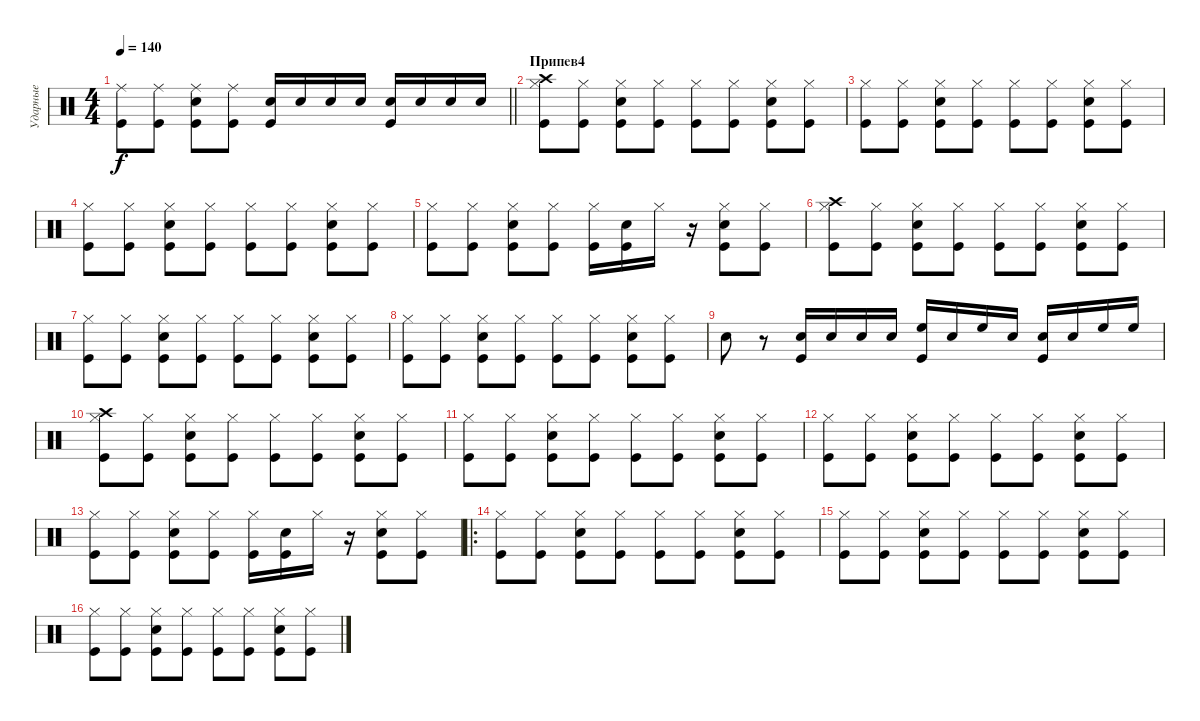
\track ("Ударные" "Ударные") {instrument percussion}
\staff {score}
\articulation defaults
\ts (4 4)
\tempo 140
\clef neutral
\barLineRight lightlight
\ks c
("Ride (middle)" "Kick (hit)").8{dy f} ("Ride (middle)" "Kick (hit)").8 ("Ride (middle)" "Kick (hit)" "Snare (hit) 2").8 ("Ride (middle)" "Kick (hit)").8 ("Snare (hit) 2" "Kick (hit)").16 "Snare (hit) 2".16 "Snare (hit) 2".16 "Snare (hit) 2".16 ("Snare (hit) 2" "Kick (hit)").16 "Snare (hit) 2".16 "Snare (hit) 2".16 "Snare (hit) 2".16 |
\section ("" "Припев4")
("Hi-Hat (closed)" "Kick (hit)" "Crash high (hit)").8 ("Hi-Hat (closed)" "Kick (hit)").8 ("Hi-Hat (closed)" "Kick (hit)" "Snare (hit) 2").8 ("Hi-Hat (closed)" "Kick (hit)").8 ("Hi-Hat (closed)" "Kick (hit)").8 ("Hi-Hat (closed)" "Kick (hit)").8 ("Hi-Hat (closed)" "Kick (hit)" "Snare (hit) 2").8 ("Hi-Hat (closed)" "Kick (hit)").8 |
("Hi-Hat (closed)" "Kick (hit)").8 ("Hi-Hat (closed)" "Kick (hit)").8 ("Hi-Hat (closed)" "Kick (hit)" "Snare (hit) 2").8 ("Hi-Hat (closed)" "Kick (hit)").8 ("Hi-Hat (closed)" "Kick (hit)").8 ("Hi-Hat (closed)" "Kick (hit)").8 ("Hi-Hat (closed)" "Kick (hit)" "Snare (hit) 2").8 ("Hi-Hat (closed)" "Kick (hit)").8 |
("Hi-Hat (closed)" "Kick (hit)").8 ("Hi-Hat (closed)" "Kick (hit)").8 ("Hi-Hat (closed)" "Kick (hit)" "Snare (hit) 2").8 ("Hi-Hat (closed)" "Kick (hit)").8 ("Hi-Hat (closed)" "Kick (hit)").8 ("Hi-Hat (closed)" "Kick (hit)").8 ("Hi-Hat (closed)" "Kick (hit)" "Snare (hit) 2").8 ("Hi-Hat (closed)" "Kick (hit)").8 |
("Hi-Hat (closed)" "Kick (hit)").8 ("Hi-Hat (closed)" "Kick (hit)").8 ("Hi-Hat (closed)" "Kick (hit)" "Snare (hit) 2").8 ("Hi-Hat (closed)" "Kick (hit)").8 ("Hi-Hat (closed)" "Kick (hit)").16 ("Kick (hit)" "Snare (hit) 2").16 "Hi-Hat (closed)".16 r.16 ("Hi-Hat (closed)" "Kick (hit)" "Snare (hit) 2").8 ("Hi-Hat (closed)" "Kick (hit)").8 |
("Hi-Hat (closed)" "Kick (hit)" "Crash high (hit)").8 ("Hi-Hat (closed)" "Kick (hit)").8 ("Hi-Hat (closed)" "Kick (hit)" "Snare (hit) 2").8 ("Hi-Hat (closed)" "Kick (hit)").8 ("Hi-Hat (closed)" "Kick (hit)").8 ("Hi-Hat (closed)" "Kick (hit)").8 ("Hi-Hat (closed)" "Kick (hit)" "Snare (hit) 2").8 ("Hi-Hat (closed)" "Kick (hit)").8 |
("Hi-Hat (closed)" "Kick (hit)").8 ("Hi-Hat (closed)" "Kick (hit)").8 ("Hi-Hat (closed)" "Kick (hit)" "Snare (hit) 2").8 ("Hi-Hat (closed)" "Kick (hit)").8 ("Hi-Hat (closed)" "Kick (hit)").8 ("Hi-Hat (closed)" "Kick (hit)").8 ("Hi-Hat (closed)" "Kick (hit)" "Snare (hit) 2").8 ("Hi-Hat (closed)" "Kick (hit)").8 |
("Hi-Hat (closed)" "Kick (hit)").8 ("Hi-Hat (closed)" "Kick (hit)").8 ("Hi-Hat (closed)" "Kick (hit)" "Snare (hit) 2").8 ("Hi-Hat (closed)" "Kick (hit)").8 ("Hi-Hat (closed)" "Kick (hit)").8 ("Hi-Hat (closed)" "Kick (hit)").8 ("Hi-Hat (closed)" "Kick (hit)" "Snare (hit) 2").8 ("Hi-Hat (closed)" "Kick (hit)").8 |
"Snare (hit) 2".8 r.8 ("Snare (hit) 2" "Kick (hit)").16 "Snare (hit) 2".16 "Snare (hit) 2".16 "Snare (hit) 2".16 ("High Floor Tom (hit)" "Kick (hit)").16 "Snare (hit) 2".16 "High Floor Tom (hit)".16 "Snare (hit) 2".16 ("Snare (hit) 2" "Kick (hit)").16 "Snare (hit) 2".16 "High Floor Tom (hit)".16 "High Floor Tom (hit)".16 |
("Hi-Hat (closed)" "Kick (hit)" "Crash high (hit)").8 ("Hi-Hat (closed)" "Kick (hit)").8 ("Hi-Hat (closed)" "Kick (hit)" "Snare (hit) 2").8 ("Hi-Hat (closed)" "Kick (hit)").8 ("Hi-Hat (closed)" "Kick (hit)").8 ("Hi-Hat (closed)" "Kick (hit)").8 ("Hi-Hat (closed)" "Kick (hit)" "Snare (hit) 2").8 ("Hi-Hat (closed)" "Kick (hit)").8 |
("Hi-Hat (closed)" "Kick (hit)").8 ("Hi-Hat (closed)" "Kick (hit)").8 ("Hi-Hat (closed)" "Kick (hit)" "Snare (hit) 2").8 ("Hi-Hat (closed)" "Kick (hit)").8 ("Hi-Hat (closed)" "Kick (hit)").8 ("Hi-Hat (closed)" "Kick (hit)").8 ("Hi-Hat (closed)" "Kick (hit)" "Snare (hit) 2").8 ("Hi-Hat (closed)" "Kick (hit)").8 |
("Hi-Hat (closed)" "Kick (hit)").8 ("Hi-Hat (closed)" "Kick (hit)").8 ("Hi-Hat (closed)" "Kick (hit)" "Snare (hit) 2").8 ("Hi-Hat (closed)" "Kick (hit)").8 ("Hi-Hat (closed)" "Kick (hit)").8 ("Hi-Hat (closed)" "Kick (hit)").8 ("Hi-Hat (closed)" "Kick (hit)" "Snare (hit) 2").8 ("Hi-Hat (closed)" "Kick (hit)").8 |
("Hi-Hat (closed)" "Kick (hit)").8 ("Hi-Hat (closed)" "Kick (hit)").8 ("Hi-Hat (closed)" "Kick (hit)" "Snare (hit) 2").8 ("Hi-Hat (closed)" "Kick (hit)").8 ("Hi-Hat (closed)" "Kick (hit)").16 ("Kick (hit)" "Snare (hit) 2").16 "Hi-Hat (closed)".16 r.16 ("Hi-Hat (closed)" "Kick (hit)" "Snare (hit) 2").8 ("Hi-Hat (closed)" "Kick (hit)").8 |
\ro
("Hi-Hat (closed)" "Kick (hit)").8 ("Hi-Hat (closed)" "Kick (hit)").8 ("Hi-Hat (closed)" "Kick (hit)" "Snare (hit) 2").8 ("Hi-Hat (closed)" "Kick (hit)").8 ("Hi-Hat (closed)" "Kick (hit)").8 ("Hi-Hat (closed)" "Kick (hit)").8 ("Hi-Hat (closed)" "Kick (hit)" "Snare (hit) 2").8 ("Hi-Hat (closed)" "Kick (hit)").8 |
("Hi-Hat (closed)" "Kick (hit)").8 ("Hi-Hat (closed)" "Kick (hit)").8 ("Hi-Hat (closed)" "Kick (hit)" "Snare (hit) 2").8 ("Hi-Hat (closed)" "Kick (hit)").8 ("Hi-Hat (closed)" "Kick (hit)").8 ("Hi-Hat (closed)" "Kick (hit)").8 ("Hi-Hat (closed)" "Kick (hit)" "Snare (hit) 2").8 ("Hi-Hat (closed)" "Kick (hit)").8 |
("Hi-Hat (closed)" "Kick (hit)").8 ("Hi-Hat (closed)" "Kick (hit)").8 ("Hi-Hat (closed)" "Kick (hit)" "Snare (hit) 2").8 ("Hi-Hat (closed)" "Kick (hit)").8 ("Hi-Hat (closed)" "Kick (hit)").8 ("Hi-Hat (closed)" "Kick (hit)").8 ("Hi-Hat (closed)" "Kick (hit)" "Snare (hit) 2").8 ("Hi-Hat (closed)" "Kick (hit)").8
